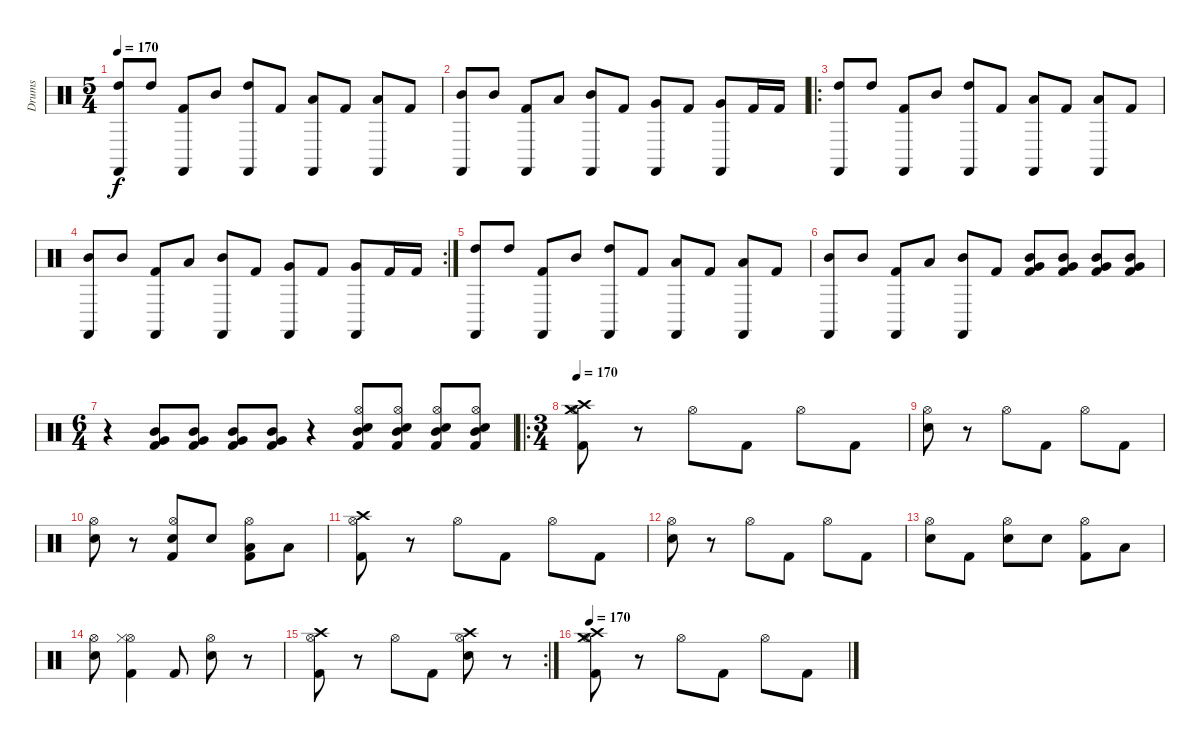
\track ("Drums" "Drums") {instrument percussion}
\staff {score}
\articulation defaults
\ts (5 4)
\tempo 170
\clef neutral
\ks c
("High Tom (hit)" "Castanets (hit)").8{dy f} "High Tom (hit)".8 ("Castanets (hit)" "Kick (hit) 2").8 "Mid Tom (hit)".8 ("High Tom (hit)" "Castanets (hit)").8 "Kick (hit) 2".8 ("Low Tom (hit)" "Castanets (hit)").8 "Kick (hit) 2".8 ("Low Tom (hit)" "Castanets (hit)").8 "Kick (hit) 2".8 |
("Mid Tom (hit)" "Castanets (hit)").8 "Mid Tom (hit)".8 ("Castanets (hit)" "Kick (hit) 2").8 "Low Tom (hit)".8 ("Mid Tom (hit)" "Castanets (hit)").8 "Kick (hit) 2".8 ("Very Low Tom (hit)" "Castanets (hit)").8 "Kick (hit) 2".8 ("Very Low Tom (hit)" "Castanets (hit)").8 "Kick (hit) 2".16 "Kick (hit) 2".16 |
\ro
("High Tom (hit)" "Castanets (hit)").8 "High Tom (hit)".8 ("Castanets (hit)" "Kick (hit) 2").8 "Mid Tom (hit)".8 ("High Tom (hit)" "Castanets (hit)").8 "Kick (hit) 2".8 ("Low Tom (hit)" "Castanets (hit)").8 "Kick (hit) 2".8 ("Low Tom (hit)" "Castanets (hit)").8 "Kick (hit) 2".8 |
\rc 2
("Mid Tom (hit)" "Castanets (hit)").8 "Mid Tom (hit)".8 ("Castanets (hit)" "Kick (hit) 2").8 "Low Tom (hit)".8 ("Mid Tom (hit)" "Castanets (hit)").8 "Kick (hit) 2".8 ("Very Low Tom (hit)" "Castanets (hit)").8 "Kick (hit) 2".8 ("Very Low Tom (hit)" "Castanets (hit)").8 "Kick (hit) 2".16 "Kick (hit) 2".16 |
("High Tom (hit)" "Castanets (hit)").8 "High Tom (hit)".8 ("Castanets (hit)" "Kick (hit) 2").8 "Mid Tom (hit)".8 ("High Tom (hit)" "Castanets (hit)").8 "Kick (hit) 2".8 ("Low Tom (hit)" "Castanets (hit)").8 "Kick (hit) 2".8 ("Low Tom (hit)" "Castanets (hit)").8 "Kick (hit) 2".8 |
("Mid Tom (hit)" "Castanets (hit)").8 "Mid Tom (hit)".8 ("Castanets (hit)" "Kick (hit) 2").8 "Low Tom (hit)".8 ("Mid Tom (hit)" "Castanets (hit)").8 "Kick (hit) 2".8 ("Very Low Tom (hit)" "Mid Tom (hit)" "Kick (hit) 2").8 ("Very Low Tom (hit)" "Mid Tom (hit)" "Kick (hit) 2").8 ("Very Low Tom (hit)" "Mid Tom (hit)" "Kick (hit) 2").8 ("Very Low Tom (hit)" "Mid Tom (hit)" "Kick (hit) 2").8 |
\ts (6 4)
r.4 ("Very Low Tom (hit)" "Mid Tom (hit)" "Kick (hit) 2").8 ("Very Low Tom (hit)" "Mid Tom (hit)" "Kick (hit) 2").8 ("Very Low Tom (hit)" "Mid Tom (hit)" "Kick (hit) 2").8 ("Very Low Tom (hit)" "Mid Tom (hit)" "Kick (hit) 2").8 r.4 ("Hi-Hat (open)" "Mid Tom (hit)" "Electric Snare (hit)" "Kick (hit) 2").8 ("Hi-Hat (open)" "Mid Tom (hit)" "Electric Snare (hit)" "Kick (hit) 2").8 ("Hi-Hat (open)" "Mid Tom (hit)" "Electric Snare (hit)" "Kick (hit) 2").8 ("Hi-Hat (open)" "Mid Tom (hit)" "Electric Snare (hit)" "Kick (hit) 2").8 |
\ro
\ts (3 4)
\tempo 170
("Hi-Hat (open)" "Crash high (hit)" "Crash medium (hit)" "Kick (hit) 2").8 r.8 "Hi-Hat (open)".8 "Kick (hit) 2".8 "Hi-Hat (open)".8 "Kick (hit) 2".8 |
("Hi-Hat (open)" "Electric Snare (hit)").8 r.8 "Hi-Hat (open)".8 "Kick (hit) 2".8 "Hi-Hat (open)".8 "Kick (hit) 2".8 |
("Hi-Hat (open)" "Electric Snare (hit)").8 r.8 ("Hi-Hat (open)" "Electric Snare (hit)" "Kick (hit) 2").8 "Electric Snare (hit)".8 ("Hi-Hat (open)" "Low Tom (hit)" "Kick (hit) 2").8 "Low Tom (hit)".8 |
("Hi-Hat (open)" "Crash high (hit)" "Kick (hit) 2").8 r.8 "Hi-Hat (open)".8 "Kick (hit) 2".8 "Hi-Hat (open)".8 "Kick (hit) 2".8 |
("Hi-Hat (open)" "Electric Snare (hit)").8 r.8 "Hi-Hat (open)".8 "Kick (hit) 2".8 "Hi-Hat (open)".8 "Kick (hit) 2".8 |
("Hi-Hat (open)" "Electric Snare (hit)").8 "Kick (hit) 2".8 ("Hi-Hat (open)" "Electric Snare (hit)").8 "Electric Snare (hit)".8 ("Hi-Hat (open)" "Kick (hit) 2").8 "Low Tom (hit)".8 |
("Hi-Hat (open)" "Electric Snare (hit)").8 ("Hi-Hat (open)" "Hi-Hat (closed)" "Kick (hit) 2").4 "Kick (hit) 2".8 ("Hi-Hat (open)" "Electric Snare (hit)").8 r.8 |
\rc 2
("Hi-Hat (open)" "Crash high (hit)" "Kick (hit) 2").8 r.8 "Hi-Hat (open)".8 "Kick (hit) 2".8 ("Hi-Hat (open)" "Electric Snare (hit)" "Crash high (hit)").8 r.8 |
\tempo 170
("Hi-Hat (open)" "Crash high (hit)" "Crash medium (hit)" "Kick (hit) 2").8 r.8 "Hi-Hat (open)".8 "Kick (hit) 2".8 "Hi-Hat (open)".8 "Kick (hit) 2".8
